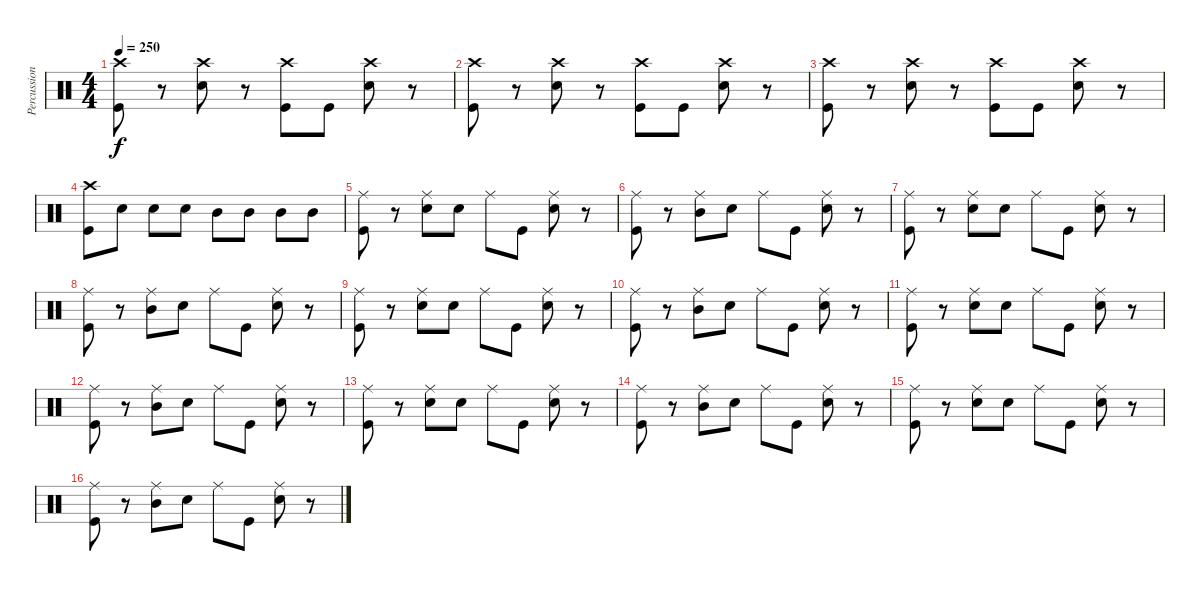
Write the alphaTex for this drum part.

\track ("Percussion" "Percussion") {instrument percussion}
\staff {score}
\articulation defaults
\ts (4 4)
\tempo 250
\clef neutral
\ks c
("Crash high (hit)" "Kick (hit)").8{dy f} r.8 ("Crash high (hit)" "Snare (hit) 2").8 r.8 ("Crash high (hit)" "Kick (hit)").8 "Kick (hit)".8 ("Crash high (hit)" "Snare (hit) 2").8 r.8 |
("Crash high (hit)" "Kick (hit)").8 r.8 ("Crash high (hit)" "Snare (hit) 2").8 r.8 ("Crash high (hit)" "Kick (hit)").8 "Kick (hit)".8 ("Crash high (hit)" "Snare (hit) 2").8 r.8 |
("Crash high (hit)" "Kick (hit)").8 r.8 ("Crash high (hit)" "Snare (hit) 2").8 r.8 ("Crash high (hit)" "Kick (hit)").8 "Kick (hit)".8 ("Crash high (hit)" "Snare (hit) 2").8 r.8 |
("Crash high (hit)" "Kick (hit)").8 "Snare (hit) 2".8 "Snare (hit) 2".8 "Snare (hit) 2".8 "Mid Tom (hit)".8 "Mid Tom (hit)".8 "Mid Tom (hit)".8 "Mid Tom (hit)".8 |
("Ride (middle)" "Kick (hit)").8 r.8 ("Ride (middle)" "Snare (hit) 2").8 "Snare (hit) 2".8 "Ride (middle)".8 "Kick (hit)".8 ("Ride (middle)" "Snare (hit) 2").8 r.8 |
("Ride (middle)" "Kick (hit)").8 r.8 ("Ride (middle)" "Mid Tom (hit)").8 "Snare (hit) 2".8 "Ride (middle)".8 "Kick (hit)".8 ("Ride (middle)" "Snare (hit) 2").8 r.8 |
("Ride (middle)" "Kick (hit)").8 r.8 ("Ride (middle)" "Snare (hit) 2").8 "Snare (hit) 2".8 "Ride (middle)".8 "Kick (hit)".8 ("Ride (middle)" "Snare (hit) 2").8 r.8 |
("Ride (middle)" "Kick (hit)").8 r.8 ("Ride (middle)" "Mid Tom (hit)").8 "Snare (hit) 2".8 "Ride (middle)".8 "Kick (hit)".8 ("Ride (middle)" "Snare (hit) 2").8 r.8 |
("Ride (middle)" "Kick (hit)").8 r.8 ("Ride (middle)" "Snare (hit) 2").8 "Snare (hit) 2".8 "Ride (middle)".8 "Kick (hit)".8 ("Ride (middle)" "Snare (hit) 2").8 r.8 |
("Ride (middle)" "Kick (hit)").8 r.8 ("Ride (middle)" "Mid Tom (hit)").8 "Snare (hit) 2".8 "Ride (middle)".8 "Kick (hit)".8 ("Ride (middle)" "Snare (hit) 2").8 r.8 |
("Ride (middle)" "Kick (hit)").8 r.8 ("Ride (middle)" "Snare (hit) 2").8 "Snare (hit) 2".8 "Ride (middle)".8 "Kick (hit)".8 ("Ride (middle)" "Snare (hit) 2").8 r.8 |
("Ride (middle)" "Kick (hit)").8 r.8 ("Ride (middle)" "Mid Tom (hit)").8 "Snare (hit) 2".8 "Ride (middle)".8 "Kick (hit)".8 ("Ride (middle)" "Snare (hit) 2").8 r.8 |
("Ride (middle)" "Kick (hit)").8 r.8 ("Ride (middle)" "Snare (hit) 2").8 "Snare (hit) 2".8 "Ride (middle)".8 "Kick (hit)".8 ("Ride (middle)" "Snare (hit) 2").8 r.8 |
("Ride (middle)" "Kick (hit)").8 r.8 ("Ride (middle)" "Mid Tom (hit)").8 "Snare (hit) 2".8 "Ride (middle)".8 "Kick (hit)".8 ("Ride (middle)" "Snare (hit) 2").8 r.8 |
("Ride (middle)" "Kick (hit)").8 r.8 ("Ride (middle)" "Snare (hit) 2").8 "Snare (hit) 2".8 "Ride (middle)".8 "Kick (hit)".8 ("Ride (middle)" "Snare (hit) 2").8 r.8 |
("Ride (middle)" "Kick (hit)").8 r.8 ("Ride (middle)" "Mid Tom (hit)").8 "Snare (hit) 2".8 "Ride (middle)".8 "Kick (hit)".8 ("Ride (middle)" "Snare (hit) 2").8 r.8
